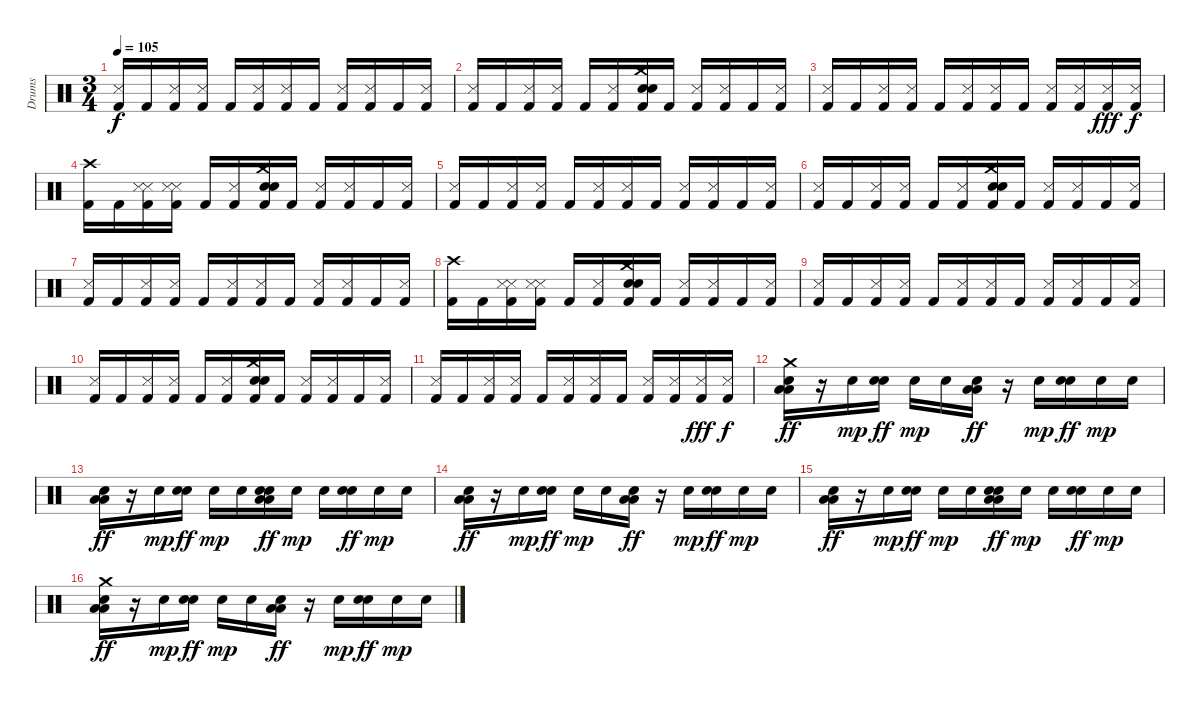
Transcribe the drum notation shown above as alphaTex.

\track ("Drums" "Drums") {instrument percussion}
\staff {score}
\articulation defaults
\ts (3 4)
\tempo 105
\clef neutral
\ks c
("Snare (side stick) 3" "Kick (hit) 2").16{dy f} "Kick (hit) 2".16 ("Snare (side stick) 3" "Kick (hit) 2").16 ("Snare (side stick) 3" "Kick (hit) 2").16 "Kick (hit) 2".16 ("Snare (side stick) 3" "Kick (hit) 2").16 ("Snare (side stick) 3" "Kick (hit) 2").16 "Kick (hit) 2".16 ("Snare (side stick) 3" "Kick (hit) 2").16 ("Snare (side stick) 3" "Kick (hit) 2").16 "Kick (hit) 2".16 ("Snare (side stick) 3" "Kick (hit) 2").16 |
("Snare (side stick) 3" "Kick (hit) 2").16 "Kick (hit) 2".16 ("Snare (side stick) 3" "Kick (hit) 2").16 ("Snare (side stick) 3" "Kick (hit) 2").16 "Kick (hit) 2".16 ("Snare (side stick) 3" "Kick (hit) 2").16 ("Crash medium (hit)" "Snare (hit) 2" "Snare (hit) 2" "Kick (hit) 2").16 "Kick (hit) 2".16 ("Snare (side stick) 3" "Kick (hit) 2").16 ("Snare (side stick) 3" "Kick (hit) 2").16 "Kick (hit) 2".16 ("Snare (side stick) 3" "Kick (hit) 2").16 |
("Snare (side stick) 3" "Kick (hit) 2").16 "Kick (hit) 2".16 ("Snare (side stick) 3" "Kick (hit) 2").16 ("Snare (side stick) 3" "Kick (hit) 2").16 "Kick (hit) 2".16 ("Snare (side stick) 3" "Kick (hit) 2").16 ("Snare (side stick) 3" "Kick (hit) 2").16 "Kick (hit) 2".16 ("Snare (side stick) 3" "Kick (hit) 2").16 ("Snare (side stick) 3" "Kick (hit) 2").16 ("Snare (side stick) 3" "Kick (hit) 2").16{dy fff} ("Snare (side stick) 3" "Kick (hit) 2").16{dy f} |
("Crash high (hit)" "Kick (hit) 2").16 "Kick (hit) 2".16 ("Snare (side stick) 3" "Snare (side stick) 3" "Kick (hit) 2").16 ("Snare (side stick) 3" "Snare (side stick) 3" "Kick (hit) 2").16 "Kick (hit) 2".16 ("Snare (side stick) 3" "Kick (hit) 2").16 ("Crash medium (hit)" "Snare (hit) 2" "Snare (hit) 2" "Kick (hit) 2").16 "Kick (hit) 2".16 ("Snare (side stick) 3" "Kick (hit) 2").16 ("Snare (side stick) 3" "Kick (hit) 2").16 "Kick (hit) 2".16 ("Snare (side stick) 3" "Kick (hit) 2").16 |
("Snare (side stick) 3" "Kick (hit) 2").16 "Kick (hit) 2".16 ("Snare (side stick) 3" "Kick (hit) 2").16 ("Snare (side stick) 3" "Kick (hit) 2").16 "Kick (hit) 2".16 ("Snare (side stick) 3" "Kick (hit) 2").16 ("Snare (side stick) 3" "Kick (hit) 2").16 "Kick (hit) 2".16 ("Snare (side stick) 3" "Kick (hit) 2").16 ("Snare (side stick) 3" "Kick (hit) 2").16 "Kick (hit) 2".16 ("Snare (side stick) 3" "Kick (hit) 2").16 |
("Snare (side stick) 3" "Kick (hit) 2").16 "Kick (hit) 2".16 ("Snare (side stick) 3" "Kick (hit) 2").16 ("Snare (side stick) 3" "Kick (hit) 2").16 "Kick (hit) 2".16 ("Snare (side stick) 3" "Kick (hit) 2").16 ("Crash medium (hit)" "Snare (hit) 2" "Snare (hit) 2" "Kick (hit) 2").16 "Kick (hit) 2".16 ("Snare (side stick) 3" "Kick (hit) 2").16 ("Snare (side stick) 3" "Kick (hit) 2").16 "Kick (hit) 2".16 ("Snare (side stick) 3" "Kick (hit) 2").16 |
("Snare (side stick) 3" "Kick (hit) 2").16 "Kick (hit) 2".16 ("Snare (side stick) 3" "Kick (hit) 2").16 ("Snare (side stick) 3" "Kick (hit) 2").16 "Kick (hit) 2".16 ("Snare (side stick) 3" "Kick (hit) 2").16 ("Snare (side stick) 3" "Kick (hit) 2").16 "Kick (hit) 2".16 ("Snare (side stick) 3" "Kick (hit) 2").16 ("Snare (side stick) 3" "Kick (hit) 2").16 "Kick (hit) 2".16 ("Snare (side stick) 3" "Kick (hit) 2").16 |
("Crash high (hit)" "Kick (hit) 2").16 "Kick (hit) 2".16 ("Snare (side stick) 3" "Snare (side stick) 3" "Kick (hit) 2").16 ("Snare (side stick) 3" "Snare (side stick) 3" "Kick (hit) 2").16 "Kick (hit) 2".16 ("Snare (side stick) 3" "Kick (hit) 2").16 ("Crash medium (hit)" "Snare (hit) 2" "Snare (hit) 2" "Kick (hit) 2").16 "Kick (hit) 2".16 ("Snare (side stick) 3" "Kick (hit) 2").16 ("Snare (side stick) 3" "Kick (hit) 2").16 "Kick (hit) 2".16 ("Snare (side stick) 3" "Kick (hit) 2").16 |
("Snare (side stick) 3" "Kick (hit) 2").16 "Kick (hit) 2".16 ("Snare (side stick) 3" "Kick (hit) 2").16 ("Snare (side stick) 3" "Kick (hit) 2").16 "Kick (hit) 2".16 ("Snare (side stick) 3" "Kick (hit) 2").16 ("Snare (side stick) 3" "Kick (hit) 2").16 "Kick (hit) 2".16 ("Snare (side stick) 3" "Kick (hit) 2").16 ("Snare (side stick) 3" "Kick (hit) 2").16 "Kick (hit) 2".16 ("Snare (side stick) 3" "Kick (hit) 2").16 |
("Snare (side stick) 3" "Kick (hit) 2").16 "Kick (hit) 2".16 ("Snare (side stick) 3" "Kick (hit) 2").16 ("Snare (side stick) 3" "Kick (hit) 2").16 "Kick (hit) 2".16 ("Snare (side stick) 3" "Kick (hit) 2").16 ("Crash medium (hit)" "Snare (hit) 2" "Snare (hit) 2" "Kick (hit) 2").16 "Kick (hit) 2".16 ("Snare (side stick) 3" "Kick (hit) 2").16 ("Snare (side stick) 3" "Kick (hit) 2").16 "Kick (hit) 2".16 ("Snare (side stick) 3" "Kick (hit) 2").16 |
("Snare (side stick) 3" "Kick (hit) 2").16 "Kick (hit) 2".16 ("Snare (side stick) 3" "Kick (hit) 2").16 ("Snare (side stick) 3" "Kick (hit) 2").16 "Kick (hit) 2".16 ("Snare (side stick) 3" "Kick (hit) 2").16 ("Snare (side stick) 3" "Kick (hit) 2").16 "Kick (hit) 2".16 ("Snare (side stick) 3" "Kick (hit) 2").16 ("Snare (side stick) 3" "Kick (hit) 2").16 ("Snare (side stick) 3" "Kick (hit) 2").16{dy fff} ("Snare (side stick) 3" "Kick (hit) 2").16{dy f} |
("Low Floor Tom (hit)" "Low Floor Tom (hit)" "Hand Clap (hit)" "Crash medium (hit)").16{dy ff} r.16 "Snare (hit) 2".16{dy mp} ("Snare (hit) 2" "Hand Clap (hit)").16{dy ff} "Snare (hit) 2".16{dy mp} "Snare (hit) 2".16 ("Low Floor Tom (hit)" "Low Floor Tom (hit)" "Hand Clap (hit)").16{dy ff} r.16 "Snare (hit) 2".16{dy mp} ("Snare (hit) 2" "Hand Clap (hit)").16{dy ff} "Snare (hit) 2".16{dy mp} "Snare (hit) 2".16 |
("Low Floor Tom (hit)" "Low Floor Tom (hit)" "Hand Clap (hit)").16{dy ff} r.16 "Snare (hit) 2".16{dy mp} ("Snare (hit) 2" "Hand Clap (hit)").16{dy ff} "Snare (hit) 2".16{dy mp} "Snare (hit) 2".16 ("Snare (hit) 2" "Low Floor Tom (hit)" "Low Floor Tom (hit)" "Hand Clap (hit)").16{dy ff} "Snare (hit) 2".16{dy mp} "Snare (hit) 2".16 ("Snare (hit) 2" "Hand Clap (hit)").16{dy ff} "Snare (hit) 2".16{dy mp} "Snare (hit) 2".16 |
("Low Floor Tom (hit)" "Low Floor Tom (hit)" "Hand Clap (hit)").16{dy ff} r.16 "Snare (hit) 2".16{dy mp} ("Snare (hit) 2" "Hand Clap (hit)").16{dy ff} "Snare (hit) 2".16{dy mp} "Snare (hit) 2".16 ("Low Floor Tom (hit)" "Low Floor Tom (hit)" "Hand Clap (hit)").16{dy ff} r.16 "Snare (hit) 2".16{dy mp} ("Snare (hit) 2" "Hand Clap (hit)").16{dy ff} "Snare (hit) 2".16{dy mp} "Snare (hit) 2".16 |
("Low Floor Tom (hit)" "Low Floor Tom (hit)" "Hand Clap (hit)").16{dy ff} r.16 "Snare (hit) 2".16{dy mp} ("Snare (hit) 2" "Hand Clap (hit)").16{dy ff} "Snare (hit) 2".16{dy mp} "Snare (hit) 2".16 ("Snare (hit) 2" "Low Floor Tom (hit)" "Low Floor Tom (hit)" "Hand Clap (hit)").16{dy ff} "Snare (hit) 2".16{dy mp} "Snare (hit) 2".16 ("Snare (hit) 2" "Hand Clap (hit)").16{dy ff} "Snare (hit) 2".16{dy mp} "Snare (hit) 2".16 |
("Low Floor Tom (hit)" "Low Floor Tom (hit)" "Hand Clap (hit)" "Crash medium (hit)").16{dy ff} r.16 "Snare (hit) 2".16{dy mp} ("Snare (hit) 2" "Hand Clap (hit)").16{dy ff} "Snare (hit) 2".16{dy mp} "Snare (hit) 2".16 ("Low Floor Tom (hit)" "Low Floor Tom (hit)" "Hand Clap (hit)").16{dy ff} r.16 "Snare (hit) 2".16{dy mp} ("Snare (hit) 2" "Hand Clap (hit)").16{dy ff} "Snare (hit) 2".16{dy mp} "Snare (hit) 2".16
